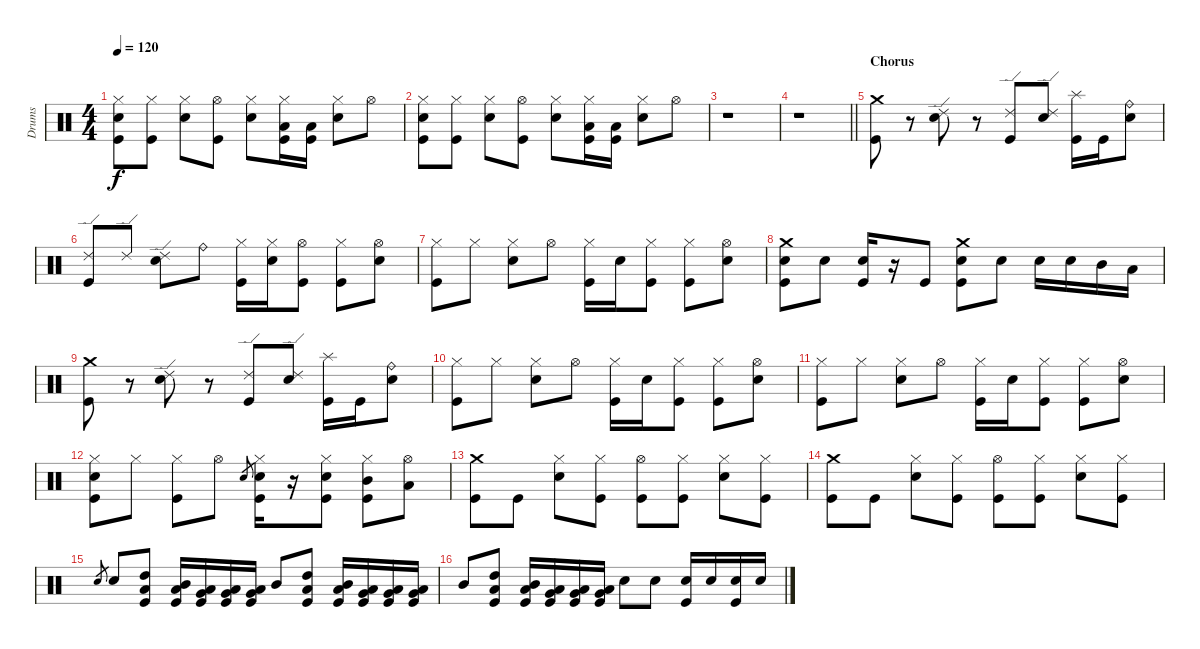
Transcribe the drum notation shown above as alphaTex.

\track ("Drums" "Drums") {instrument percussion}
\staff {score}
\articulation defaults
\ts (4 4)
\tempo 120
\clef neutral
\ks c
("Hi-Hat (closed)" "Snare (hit) 2" "Kick (hit)").8{dy f} ("Hi-Hat (closed)" "Kick (hit)").8 ("Hi-Hat (closed)" "Snare (hit) 2").8 ("Hi-Hat (open)" "Kick (hit)").8 ("Hi-Hat (closed)" "Snare (hit) 2").8 ("Hi-Hat (closed)" "Low Tom (hit)" "Kick (hit)").16 ("Low Tom (hit)" "Kick (hit)").16 ("Hi-Hat (closed)" "Snare (hit) 2").8 "Hi-Hat (open)".8 |
("Hi-Hat (closed)" "Snare (hit) 2" "Kick (hit)").8 ("Hi-Hat (closed)" "Kick (hit)").8 ("Hi-Hat (closed)" "Snare (hit) 2").8 ("Hi-Hat (open)" "Kick (hit)").8 ("Hi-Hat (closed)" "Snare (hit) 2").8 ("Hi-Hat (closed)" "Low Tom (hit)" "Kick (hit)").16 ("Low Tom (hit)" "Kick (hit)").16 ("Hi-Hat (closed)" "Snare (hit) 2").8 "Hi-Hat (open)".8 |
r.1 |
\barLineRight lightlight
r.1 |
\section ("" "Chorus")
("Crash medium (hit)" "Kick (hit)").8 r.8 ("Ride (edge) 2" "Snare (hit) 2").8 r.8 ("Ride (edge) 2" "Kick (hit)").8 ("Ride (edge) 2" "Snare (hit) 2").8 ("Splash (hit)" "Kick (hit)").16 "Kick (hit)".16 ("Ride (bell)" "Snare (hit) 2").8 |
("Ride (edge) 2" "Kick (hit)").8 "Ride (edge) 2".8 ("Ride (edge) 2" "Snare (hit) 2").8 "Ride (bell)".8 ("Hi-Hat (closed)" "Kick (hit)").16 ("Hi-Hat (closed)" "Snare (hit) 2").16 ("Hi-Hat (open)" "Kick (hit)").8 ("Hi-Hat (closed)" "Kick (hit)").8 ("Hi-Hat (open)" "Snare (hit) 2").8 |
("Hi-Hat (closed)" "Kick (hit)").8 "Hi-Hat (closed)".8 ("Hi-Hat (closed)" "Snare (hit) 2").8 "Hi-Hat (open)".8 ("Hi-Hat (closed)" "Kick (hit)").16 "Snare (hit) 2".16 ("Hi-Hat (closed)" "Kick (hit)").8 ("Hi-Hat (closed)" "Kick (hit)").8 ("Hi-Hat (open)" "Snare (hit) 2").8 |
("Crash medium (hit)" "Snare (hit) 2" "Kick (hit)").8 "Snare (hit) 2".8 ("Snare (hit) 2" "Kick (hit)").16 r.16 "Kick (hit)".8 ("Crash medium (hit)" "Snare (hit) 2" "Kick (hit)").8 "Snare (hit) 2".8 "Snare (hit) 2".16 "Snare (hit) 2".16 "Mid Tom (hit)".16 "Low Tom (hit)".16 |
("Crash medium (hit)" "Kick (hit)").8 r.8 ("Ride (edge) 2" "Snare (hit) 2").8 r.8 ("Ride (edge) 2" "Kick (hit)").8 ("Ride (edge) 2" "Snare (hit) 2").8 ("Splash (hit)" "Kick (hit)").16 "Kick (hit)".16 ("Ride (bell)" "Snare (hit) 2").8 |
("Hi-Hat (closed)" "Kick (hit)").8 "Hi-Hat (closed)".8 ("Hi-Hat (closed)" "Snare (hit) 2").8 "Hi-Hat (open)".8 ("Hi-Hat (closed)" "Kick (hit)").16 "Snare (hit) 2".16 ("Hi-Hat (closed)" "Kick (hit)").8 ("Hi-Hat (closed)" "Kick (hit)").8 ("Hi-Hat (open)" "Snare (hit) 2").8 |
("Hi-Hat (closed)" "Kick (hit)").8 "Hi-Hat (closed)".8 ("Hi-Hat (closed)" "Snare (hit) 2").8 "Hi-Hat (open)".8 ("Hi-Hat (closed)" "Kick (hit)").16 "Snare (hit) 2".16 ("Hi-Hat (closed)" "Kick (hit)").8 ("Hi-Hat (closed)" "Kick (hit)").8 ("Hi-Hat (open)" "Snare (hit) 2").8 |
("Hi-Hat (closed)" "Snare (hit) 2" "Kick (hit)").8 "Hi-Hat (closed)".8 ("Hi-Hat (closed)" "Kick (hit)").8 "Hi-Hat (open)".8 "Snare (hit) 2".8{gr} ("Hi-Hat (closed)" "Snare (hit) 2" "Kick (hit)").16 r.16 ("Hi-Hat (closed)" "Snare (hit) 2" "Kick (hit)").8 ("Hi-Hat (closed)" "Mid Tom (hit)" "Kick (hit)").8 ("Hi-Hat (open)" "Low Tom (hit)").8 |
("Crash medium (hit)" "Kick (hit)").8 "Kick (hit)".8 ("Hi-Hat (closed)" "Snare (hit) 2").8 ("Hi-Hat (closed)" "Kick (hit)").8 ("Hi-Hat (open)" "Kick (hit)").8 ("Hi-Hat (closed)" "Kick (hit)").8 ("Hi-Hat (closed)" "Snare (hit) 2").8 ("Hi-Hat (closed)" "Kick (hit)").8 |
("Crash medium (hit)" "Kick (hit)").8 "Kick (hit)".8 ("Hi-Hat (closed)" "Snare (hit) 2").8 ("Hi-Hat (closed)" "Kick (hit)").8 ("Hi-Hat (open)" "Kick (hit)").8 ("Hi-Hat (closed)" "Kick (hit)").8 ("Hi-Hat (closed)" "Snare (hit) 2").8 ("Hi-Hat (closed)" "Kick (hit)").8 |
"Snare (hit) 2".8{gr} "Snare (hit) 2".8 ("High Tom (hit)" "Low Tom (hit)" "Kick (hit)").8 ("Mid Tom (hit)" "Low Tom (hit)" "Kick (hit)").16 ("Very Low Tom (hit)" "Low Tom (hit)" "Kick (hit)").16 ("Very Low Tom (hit)" "Low Tom (hit)" "Kick (hit)").16 ("Very Low Tom (hit)" "Low Tom (hit)" "Kick (hit)").16 "Mid Tom (hit)".8 ("High Tom (hit)" "Low Tom (hit)" "Kick (hit)").8 ("Mid Tom (hit)" "Low Tom (hit)" "Kick (hit)").16 ("Very Low Tom (hit)" "Low Tom (hit)" "Kick (hit)").16 ("Very Low Tom (hit)" "Low Tom (hit)" "Kick (hit)").16 ("Very Low Tom (hit)" "Low Tom (hit)" "Kick (hit)").16 |
"Mid Tom (hit)".8 ("High Tom (hit)" "Low Tom (hit)" "Kick (hit)").8 ("Mid Tom (hit)" "Low Tom (hit)" "Kick (hit)").16 ("Very Low Tom (hit)" "Low Tom (hit)" "Kick (hit)").16 ("Very Low Tom (hit)" "Low Tom (hit)" "Kick (hit)").16 ("Very Low Tom (hit)" "Low Tom (hit)" "Kick (hit)").16 "Snare (hit) 2".8 "Snare (hit) 2".8 ("Snare (hit) 2" "Kick (hit)").16 "Snare (hit) 2".16 ("Snare (hit) 2" "Kick (hit)").16 "Snare (hit) 2".16
